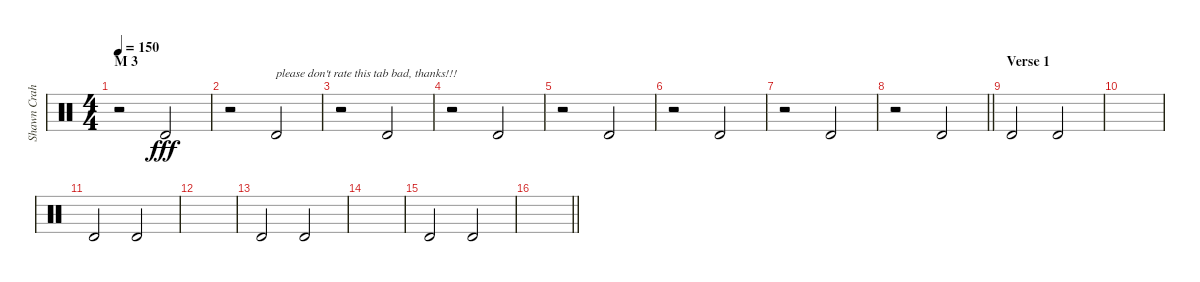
\track ("Shawn Crahan" "Shawn Crah") {instrument percussion}
\staff {score}
\articulation defaults
\ts (4 4)
\section ("" "M 3")
\tempo 150
\clef neutral
\ks c
r.2{dy fff} "Timbale high (hit)".2 |
r.2 "Timbale high (hit)".2{txt "please don't rate this tab bad, thanks!!!"} |
r.2 "Timbale high (hit)".2 |
r.2 "Timbale high (hit)".2 |
r.2 "Timbale high (hit)".2 |
r.2 "Timbale high (hit)".2 |
r.2 "Timbale high (hit)".2 |
\barLineRight lightlight
r.2 "Timbale high (hit)".2 |
\section ("" "Verse 1")
"Timbale high (hit)".2 "Timbale high (hit)".2 |
|
"Timbale high (hit)".2 "Timbale high (hit)".2 |
|
"Timbale high (hit)".2 "Timbale high (hit)".2 |
|
"Timbale high (hit)".2 "Timbale high (hit)".2 |
\barLineRight lightlight
